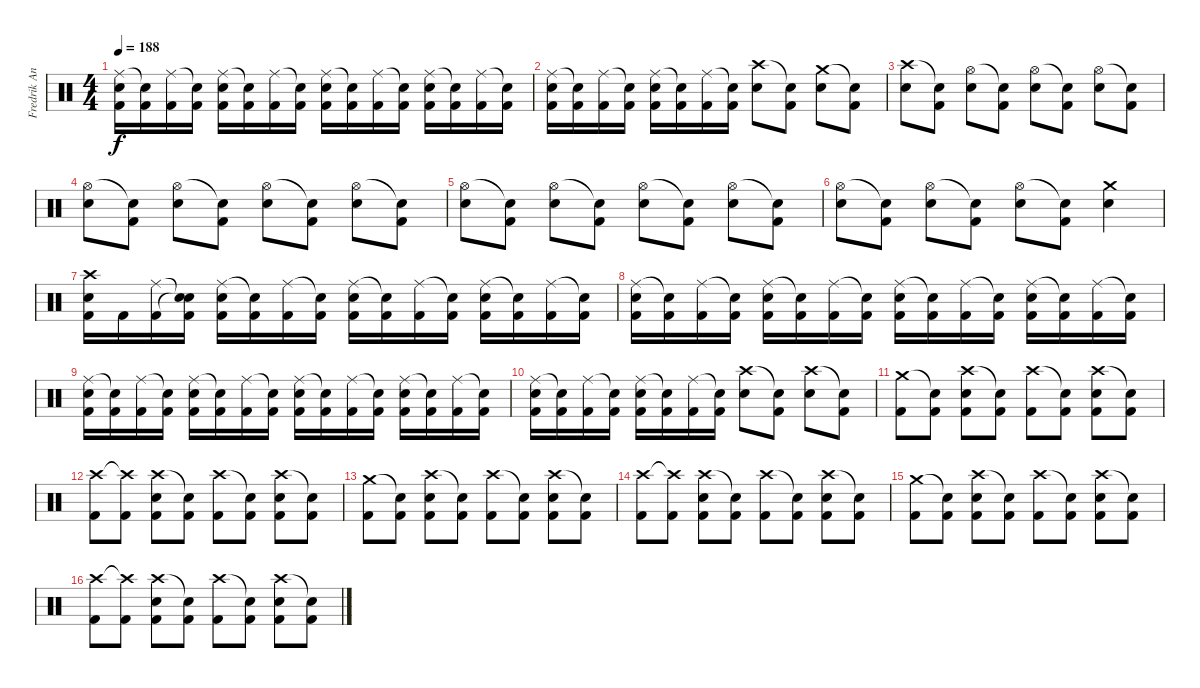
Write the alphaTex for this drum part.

\track ("Fredrik Andersson" "Fredrik An") {instrument percussion}
\staff {score}
\articulation defaults
\ts (4 4)
\tempo 188
\clef neutral
\ks c
("Ride (middle)" "Snare (hit) 2" "Kick (hit) 2").16{dy f} ("Snare (hit)"{t} "Kick (hit) 2").16 ("Ride (middle)" "Kick (hit) 2").16 ("Snare (hit)"{t} "Kick (hit) 2").16 ("Ride (middle)" "Snare (hit) 2" "Kick (hit) 2").16 ("Snare (hit)"{t} "Kick (hit) 2").16 ("Ride (middle)" "Kick (hit) 2").16 ("Snare (hit)"{t} "Kick (hit) 2").16 ("Ride (middle)" "Snare (hit) 2" "Kick (hit) 2").16 ("Snare (hit)"{t} "Kick (hit) 2").16 ("Ride (middle)" "Kick (hit) 2").16 ("Snare (hit)"{t} "Kick (hit) 2").16 ("Ride (middle)" "Snare (hit) 2" "Kick (hit) 2").16 ("Snare (hit)"{t} "Kick (hit) 2").16 ("Ride (middle)" "Kick (hit) 2").16 ("Snare (hit)"{t} "Kick (hit) 2").16 |
("Ride (middle)" "Snare (hit) 2" "Kick (hit) 2").16 ("Snare (hit)"{t} "Kick (hit) 2").16 ("Ride (middle)" "Kick (hit) 2").16 ("Snare (hit)"{t} "Kick (hit) 2").16 ("Ride (middle)" "Snare (hit) 2" "Kick (hit) 2").16 ("Snare (hit)"{t} "Kick (hit) 2").16 ("Ride (middle)" "Kick (hit) 2").16 ("Snare (hit)"{t} "Kick (hit) 2").16 ("Crash high (hit)" "Snare (hit) 2").8 ("Snare (hit)"{t} "Kick (hit) 2").8 ("Crash medium (hit)" "Snare (hit) 2").8 ("Snare (hit)"{t} "Kick (hit) 2").8 |
("Crash high (hit)" "Snare (hit) 2").8 ("Snare (hit)"{t} "Kick (hit) 2").8 ("Hi-Hat (open)" "Snare (hit) 2").8 ("Snare (hit)"{t} "Kick (hit) 2").8 ("Hi-Hat (open)" "Snare (hit) 2").8 ("Snare (hit)"{t} "Kick (hit) 2").8 ("Hi-Hat (open)" "Snare (hit) 2").8 ("Snare (hit)"{t} "Kick (hit) 2").8 |
("Hi-Hat (open)" "Snare (hit) 2").8 ("Snare (hit)"{t} "Kick (hit) 2").8 ("Hi-Hat (open)" "Snare (hit) 2").8 ("Snare (hit)"{t} "Kick (hit) 2").8 ("Hi-Hat (open)" "Snare (hit) 2").8 ("Snare (hit)"{t} "Kick (hit) 2").8 ("Hi-Hat (open)" "Snare (hit) 2").8 ("Snare (hit)"{t} "Kick (hit) 2").8 |
("Hi-Hat (open)" "Snare (hit) 2").8 ("Snare (hit)"{t} "Kick (hit) 2").8 ("Hi-Hat (open)" "Snare (hit) 2").8 ("Snare (hit)"{t} "Kick (hit) 2").8 ("Hi-Hat (open)" "Snare (hit) 2").8 ("Snare (hit)"{t} "Kick (hit) 2").8 ("Hi-Hat (open)" "Snare (hit) 2").8 ("Snare (hit)"{t} "Kick (hit) 2").8 |
("Hi-Hat (open)" "Snare (hit) 2").8 ("Snare (hit)"{t} "Kick (hit) 2").8 ("Hi-Hat (open)" "Snare (hit) 2").8 ("Snare (hit)"{t} "Kick (hit) 2").8 ("Hi-Hat (open)" "Snare (hit) 2").8 ("Snare (hit)"{t} "Kick (hit) 2").8 ("Crash medium (hit)" "Snare (hit) 2").4 |
("Crash high (hit)" "Snare (hit) 2" "Kick (hit) 2").16 "Kick (hit) 2".16 ("Ride (middle)" "Kick (hit) 2").16 ("Snare (hit)"{t} "Snare (hit)"{t} "Kick (hit) 2").16 ("Ride (middle)" "Snare (hit) 2" "Kick (hit) 2").16 ("Snare (hit)"{t} "Kick (hit) 2").16 ("Ride (middle)" "Kick (hit) 2").16 ("Snare (hit)"{t} "Kick (hit) 2").16 ("Ride (middle)" "Snare (hit) 2" "Kick (hit) 2").16 ("Snare (hit)"{t} "Kick (hit) 2").16 ("Ride (middle)" "Kick (hit) 2").16 ("Snare (hit)"{t} "Kick (hit) 2").16 ("Ride (middle)" "Snare (hit) 2" "Kick (hit) 2").16 ("Snare (hit)"{t} "Kick (hit) 2").16 ("Ride (middle)" "Kick (hit) 2").16 ("Snare (hit)"{t} "Kick (hit) 2").16 |
("Ride (middle)" "Snare (hit) 2" "Kick (hit) 2").16 ("Snare (hit)"{t} "Kick (hit) 2").16 ("Ride (middle)" "Kick (hit) 2").16 ("Snare (hit)"{t} "Kick (hit) 2").16 ("Ride (middle)" "Snare (hit) 2" "Kick (hit) 2").16 ("Snare (hit)"{t} "Kick (hit) 2").16 ("Ride (middle)" "Kick (hit) 2").16 ("Snare (hit)"{t} "Kick (hit) 2").16 ("Ride (middle)" "Snare (hit) 2" "Kick (hit) 2").16 ("Snare (hit)"{t} "Kick (hit) 2").16 ("Ride (middle)" "Kick (hit) 2").16 ("Snare (hit)"{t} "Kick (hit) 2").16 ("Ride (middle)" "Snare (hit) 2" "Kick (hit) 2").16 ("Snare (hit)"{t} "Kick (hit) 2").16 ("Ride (middle)" "Kick (hit) 2").16 ("Snare (hit)"{t} "Kick (hit) 2").16 |
("Ride (middle)" "Snare (hit) 2" "Kick (hit) 2").16 ("Snare (hit)"{t} "Kick (hit) 2").16 ("Ride (middle)" "Kick (hit) 2").16 ("Snare (hit)"{t} "Kick (hit) 2").16 ("Ride (middle)" "Snare (hit) 2" "Kick (hit) 2").16 ("Snare (hit)"{t} "Kick (hit) 2").16 ("Ride (middle)" "Kick (hit) 2").16 ("Snare (hit)"{t} "Kick (hit) 2").16 ("Ride (middle)" "Snare (hit) 2" "Kick (hit) 2").16 ("Snare (hit)"{t} "Kick (hit) 2").16 ("Ride (middle)" "Kick (hit) 2").16 ("Snare (hit)"{t} "Kick (hit) 2").16 ("Ride (middle)" "Snare (hit) 2" "Kick (hit) 2").16 ("Snare (hit)"{t} "Kick (hit) 2").16 ("Ride (middle)" "Kick (hit) 2").16 ("Snare (hit)"{t} "Kick (hit) 2").16 |
("Ride (middle)" "Snare (hit) 2" "Kick (hit) 2").16 ("Snare (hit)"{t} "Kick (hit) 2").16 ("Ride (middle)" "Kick (hit) 2").16 ("Snare (hit)"{t} "Kick (hit) 2").16 ("Ride (middle)" "Snare (hit) 2" "Kick (hit) 2").16 ("Snare (hit)"{t} "Kick (hit) 2").16 ("Ride (middle)" "Kick (hit) 2").16 ("Snare (hit)"{t} "Kick (hit) 2").16 ("Crash high (hit)" "Snare (hit) 2").8 ("Snare (hit)"{t} "Kick (hit) 2").8 ("Crash high (hit)" "Snare (hit) 2").8 ("Snare (hit)"{t} "Kick (hit) 2").8 |
("Crash medium (hit)" "Kick (hit) 2").8 ("Snare (hit)"{t} "Kick (hit) 2").8 ("Crash high (hit)" "Snare (hit) 2" "Kick (hit) 2").8 ("Snare (hit)"{t} "Kick (hit) 2").8 ("Crash high (hit)" "Kick (hit) 2").8 ("Snare (hit)"{t} "Kick (hit) 2").8 ("Crash high (hit)" "Snare (hit) 2" "Kick (hit) 2").8 ("Snare (hit)"{t} "Kick (hit) 2").8 |
("Crash high (hit)" "Kick (hit) 2").8 ("Crash high (hit)"{t} "Kick (hit) 2").8 ("Crash high (hit)" "Snare (hit) 2" "Kick (hit) 2").8 ("Snare (hit)"{t} "Kick (hit) 2").8 ("Crash high (hit)" "Kick (hit) 2").8 ("Snare (hit)"{t} "Kick (hit) 2").8 ("Crash high (hit)" "Snare (hit) 2" "Kick (hit) 2").8 ("Snare (hit)"{t} "Kick (hit) 2").8 |
("Crash medium (hit)" "Kick (hit) 2").8 ("Snare (hit)"{t} "Kick (hit) 2").8 ("Crash high (hit)" "Snare (hit) 2" "Kick (hit) 2").8 ("Snare (hit)"{t} "Kick (hit) 2").8 ("Crash high (hit)" "Kick (hit) 2").8 ("Snare (hit)"{t} "Kick (hit) 2").8 ("Crash high (hit)" "Snare (hit) 2" "Kick (hit) 2").8 ("Snare (hit)"{t} "Kick (hit) 2").8 |
("Crash high (hit)" "Kick (hit) 2").8 ("Crash high (hit)"{t} "Kick (hit) 2").8 ("Crash high (hit)" "Snare (hit) 2" "Kick (hit) 2").8 ("Snare (hit)"{t} "Kick (hit) 2").8 ("Crash high (hit)" "Kick (hit) 2").8 ("Snare (hit)"{t} "Kick (hit) 2").8 ("Crash high (hit)" "Snare (hit) 2" "Kick (hit) 2").8 ("Snare (hit)"{t} "Kick (hit) 2").8 |
("Crash medium (hit)" "Kick (hit) 2").8 ("Snare (hit)"{t} "Kick (hit) 2").8 ("Crash high (hit)" "Snare (hit) 2" "Kick (hit) 2").8 ("Snare (hit)"{t} "Kick (hit) 2").8 ("Crash high (hit)" "Kick (hit) 2").8 ("Snare (hit)"{t} "Kick (hit) 2").8 ("Crash high (hit)" "Snare (hit) 2" "Kick (hit) 2").8 ("Snare (hit)"{t} "Kick (hit) 2").8 |
("Crash high (hit)" "Kick (hit) 2").8 ("Crash high (hit)"{t} "Kick (hit) 2").8 ("Crash high (hit)" "Snare (hit) 2" "Kick (hit) 2").8 ("Snare (hit)"{t} "Kick (hit) 2").8 ("Crash high (hit)" "Kick (hit) 2").8 ("Snare (hit)"{t} "Kick (hit) 2").8 ("Crash high (hit)" "Snare (hit) 2" "Kick (hit) 2").8 ("Snare (hit)"{t} "Kick (hit) 2").8
